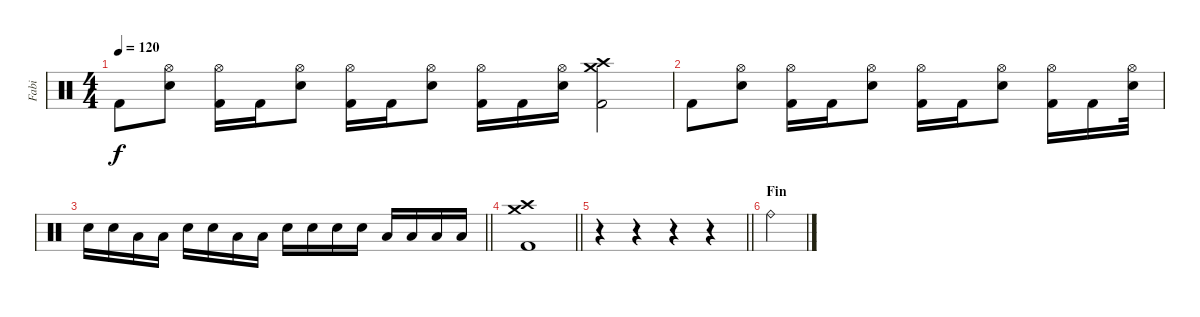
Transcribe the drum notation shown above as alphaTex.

\track ("Fabi" "Fabi") {instrument percussion}
\staff {score}
\articulation defaults
\ts (4 4)
\tempo 120
\clef neutral
\ks c "Kick (hit) 2".8{dy f}
("Hi-Hat (open)" "Snare (hit) 2").8 ("Hi-Hat (open)" "Kick (hit) 2").16 "Kick (hit) 2".16 ("Hi-Hat (open)" "Snare (hit) 2").8 ("Hi-Hat (open)" "Kick (hit) 2").16 "Kick (hit) 2".16 ("Hi-Hat (open)" "Snare (hit) 2").8 ("Hi-Hat (open)" "Kick (hit) 2").16 "Kick (hit) 2".16 ("Hi-Hat (open)" "Snare (hit) 2").16 ("Crash high (hit)" "Crash medium (hit)" "Kick (hit) 2").2 |
"Kick (hit) 2".8 ("Hi-Hat (open)" "Snare (hit) 2").8 ("Hi-Hat (open)" "Kick (hit) 2").16 "Kick (hit) 2".16 ("Hi-Hat (open)" "Snare (hit) 2").8 ("Hi-Hat (open)" "Kick (hit) 2").16 "Kick (hit) 2".16 ("Hi-Hat (open)" "Snare (hit) 2").8 ("Hi-Hat (open)" "Kick (hit) 2").16 "Kick (hit) 2".16 ("Hi-Hat (open)" "Snare (hit) 2").32 |
\barLineRight lightlight "Snare (hit) 2".16 "Snare (hit) 2".16 "Low Tom (hit)".16 "Low Tom (hit)".16 "Snare (hit) 2".16 "Snare (hit) 2".16 "Low Tom (hit)".16 "Low Tom (hit)".16 "Snare (hit) 2".16 "Snare (hit) 2".16 "Snare (hit) 2".16 "Snare (hit) 2".16 "Low Tom (hit)".16 "Low Tom (hit)".16 "Low Floor Tom (hit)".16 "Low Floor Tom (hit)".16
|
\barLineRight lightlight
("Crash high (hit)" "Crash medium (hit)" "Kick (hit) 2").1 |
\barLineRight lightlight
r.4 r.4 r.4 r.4 |
\section ("" "Fin")
"Ride (bell)".4
